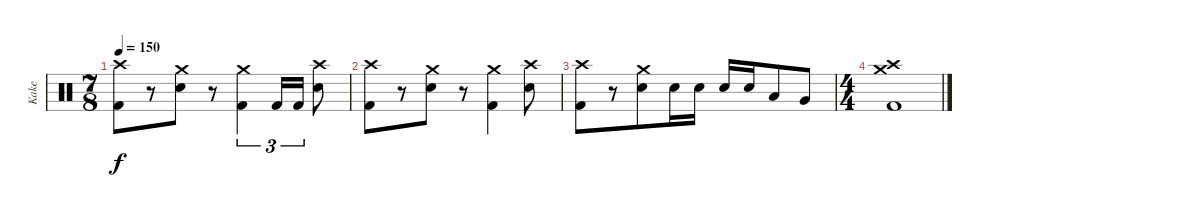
\track ("Kake" "Kake") {instrument percussion}
\staff {score}
\articulation defaults
\ts (7 8)
\tempo 150
\clef neutral
\ks c
("Crash high (hit)" "Kick (hit) 2").8{dy f} r.8 ("Crash medium (hit)" "Electric Snare (hit)").8 r.8 ("Crash medium (hit)" "Kick (hit) 2").4{tu (3 2)} "Kick (hit) 2".16{tu (3 2)} "Kick (hit) 2".16{tu (3 2)} ("Crash high (hit)" "Electric Snare (hit)").8 |
("Crash high (hit)" "Kick (hit) 2").8 r.8 ("Crash medium (hit)" "Electric Snare (hit)").8 r.8 ("Crash medium (hit)" "Kick (hit) 2").4 ("Crash high (hit)" "Electric Snare (hit)").8 |
("Crash high (hit)" "Kick (hit) 2").8 r.8 ("Crash medium (hit)" "Electric Snare (hit)").8 "Electric Snare (hit)".16 "Electric Snare (hit)".16 "Electric Snare (hit)".16 "Electric Snare (hit)".16 "Low Tom (hit)".8 "Very Low Tom (hit)".8 |
\ts (4 4)
("Crash high (hit)" "Crash medium (hit)" "Kick (hit) 2").1
